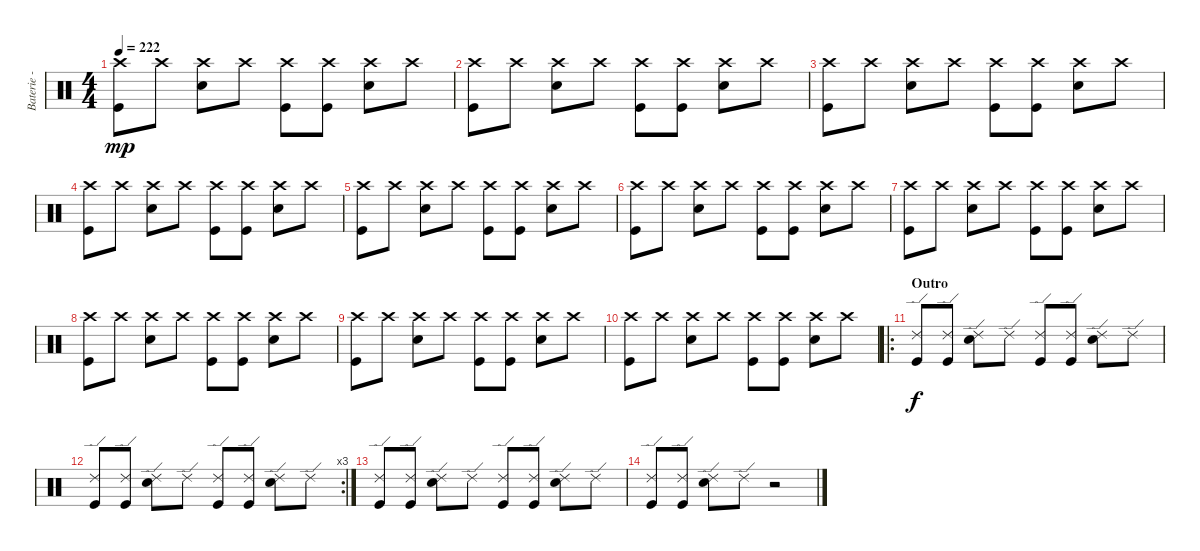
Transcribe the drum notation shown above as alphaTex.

\track ("Baterie - Guillaume" "Baterie - ") {instrument percussion}
\staff {score}
\articulation defaults
\ts (4 4)
\tempo 222
\clef neutral
\ks c
("Crash high (hit)" "Kick (hit)").8{dy mp} "Crash high (hit)".8 ("Crash high (hit)" "Snare (hit) 2").8 "Crash high (hit)".8 ("Crash high (hit)" "Kick (hit)").8 ("Crash high (hit)" "Kick (hit)").8 ("Crash high (hit)" "Snare (hit) 2").8 "Crash high (hit)".8 |
("Crash high (hit)" "Kick (hit)").8 "Crash high (hit)".8 ("Crash high (hit)" "Snare (hit) 2").8 "Crash high (hit)".8 ("Crash high (hit)" "Kick (hit)").8 ("Crash high (hit)" "Kick (hit)").8 ("Crash high (hit)" "Snare (hit) 2").8 "Crash high (hit)".8 |
("Crash high (hit)" "Kick (hit)").8 "Crash high (hit)".8 ("Crash high (hit)" "Snare (hit) 2").8 "Crash high (hit)".8 ("Crash high (hit)" "Kick (hit)").8 ("Crash high (hit)" "Kick (hit)").8 ("Crash high (hit)" "Snare (hit) 2").8 "Crash high (hit)".8 |
("Crash high (hit)" "Kick (hit)").8 "Crash high (hit)".8 ("Crash high (hit)" "Snare (hit) 2").8 "Crash high (hit)".8 ("Crash high (hit)" "Kick (hit)").8 ("Crash high (hit)" "Kick (hit)").8 ("Crash high (hit)" "Snare (hit) 2").8 "Crash high (hit)".8 |
("Crash high (hit)" "Kick (hit)").8 "Crash high (hit)".8 ("Crash high (hit)" "Snare (hit) 2").8 "Crash high (hit)".8 ("Crash high (hit)" "Kick (hit)").8 ("Crash high (hit)" "Kick (hit)").8 ("Crash high (hit)" "Snare (hit) 2").8 "Crash high (hit)".8 |
("Crash high (hit)" "Kick (hit)").8 "Crash high (hit)".8 ("Crash high (hit)" "Snare (hit) 2").8 "Crash high (hit)".8 ("Crash high (hit)" "Kick (hit)").8 ("Crash high (hit)" "Kick (hit)").8 ("Crash high (hit)" "Snare (hit) 2").8 "Crash high (hit)".8 |
("Crash high (hit)" "Kick (hit)").8 "Crash high (hit)".8 ("Crash high (hit)" "Snare (hit) 2").8 "Crash high (hit)".8 ("Crash high (hit)" "Kick (hit)").8 ("Crash high (hit)" "Kick (hit)").8 ("Crash high (hit)" "Snare (hit) 2").8 "Crash high (hit)".8 |
("Crash high (hit)" "Kick (hit)").8 "Crash high (hit)".8 ("Crash high (hit)" "Snare (hit) 2").8 "Crash high (hit)".8 ("Crash high (hit)" "Kick (hit)").8 ("Crash high (hit)" "Kick (hit)").8 ("Crash high (hit)" "Snare (hit) 2").8 "Crash high (hit)".8 |
("Crash high (hit)" "Kick (hit)").8 "Crash high (hit)".8 ("Crash high (hit)" "Snare (hit) 2").8 "Crash high (hit)".8 ("Crash high (hit)" "Kick (hit)").8 ("Crash high (hit)" "Kick (hit)").8 ("Crash high (hit)" "Snare (hit) 2").8 "Crash high (hit)".8 |
("Crash high (hit)" "Kick (hit)").8 "Crash high (hit)".8 ("Crash high (hit)" "Snare (hit) 2").8 "Crash high (hit)".8 ("Crash high (hit)" "Kick (hit)").8 ("Crash high (hit)" "Kick (hit)").8 ("Crash high (hit)" "Snare (hit) 2").8 "Crash high (hit)".8 |
\ro
\section ("" "Outro")
("Ride (edge) 2" "Kick (hit)").8{dy f} ("Ride (edge) 2" "Kick (hit)").8 ("Ride (edge) 2" "Snare (hit) 2").8 "Ride (edge) 2".8 ("Ride (edge) 2" "Kick (hit)").8 ("Ride (edge) 2" "Kick (hit)").8 ("Ride (edge) 2" "Snare (hit) 2").8 "Ride (edge) 2".8 |
\rc 3
("Ride (edge) 2" "Kick (hit)").8 ("Ride (edge) 2" "Kick (hit)").8 ("Ride (edge) 2" "Snare (hit) 2").8 "Ride (edge) 2".8 ("Ride (edge) 2" "Kick (hit)").8 ("Ride (edge) 2" "Kick (hit)").8 ("Ride (edge) 2" "Snare (hit) 2").8 "Ride (edge) 2".8 |
("Ride (edge) 2" "Kick (hit)").8 ("Ride (edge) 2" "Kick (hit)").8 ("Ride (edge) 2" "Snare (hit) 2").8 "Ride (edge) 2".8 ("Ride (edge) 2" "Kick (hit)").8 ("Ride (edge) 2" "Kick (hit)").8 ("Ride (edge) 2" "Snare (hit) 2").8 "Ride (edge) 2".8 |
("Ride (edge) 2" "Kick (hit)").8 ("Ride (edge) 2" "Kick (hit)").8 ("Ride (edge) 2" "Snare (hit) 2").8 "Ride (edge) 2".8 r.2
